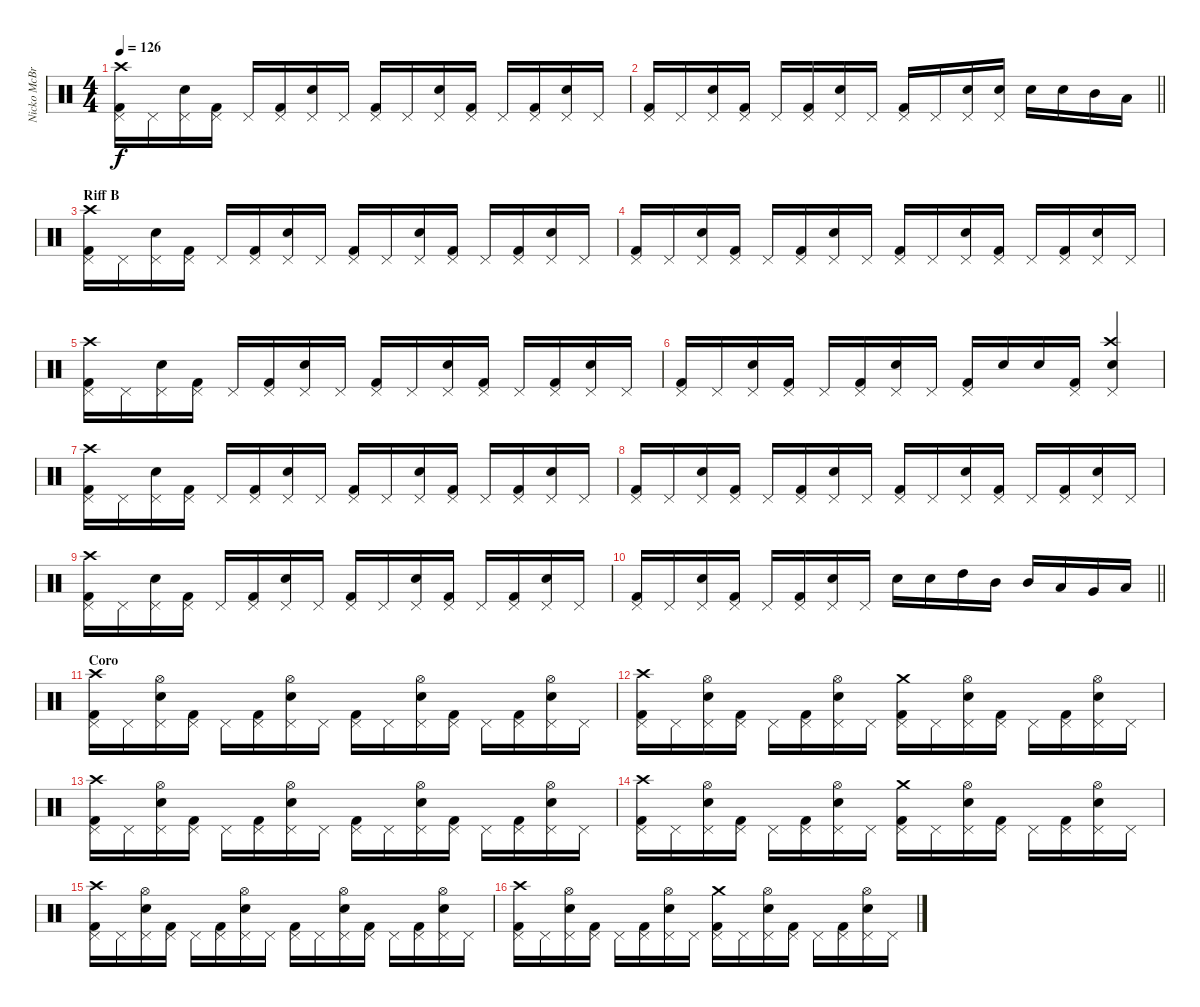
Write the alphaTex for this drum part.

\track ("Nicko McBrain" "Nicko McBr") {instrument percussion}
\staff {score}
\articulation defaults
\ts (4 4)
\tempo 126
\clef neutral
\ks c
("Kick (hit) 2" "Pedal Hi-Hat (hit)" "Crash high (hit)").16{dy f} "Pedal Hi-Hat (hit)".16 ("Snare (hit) 2" "Pedal Hi-Hat (hit)").16 ("Kick (hit) 2" "Pedal Hi-Hat (hit)").16 "Pedal Hi-Hat (hit)".16 ("Kick (hit) 2" "Pedal Hi-Hat (hit)").16 ("Snare (hit) 2" "Pedal Hi-Hat (hit)").16 "Pedal Hi-Hat (hit)".16 ("Kick (hit) 2" "Pedal Hi-Hat (hit)").16 "Pedal Hi-Hat (hit)".16 ("Snare (hit) 2" "Pedal Hi-Hat (hit)").16 ("Kick (hit) 2" "Pedal Hi-Hat (hit)").16 "Pedal Hi-Hat (hit)".16 ("Kick (hit) 2" "Pedal Hi-Hat (hit)").16 ("Snare (hit) 2" "Pedal Hi-Hat (hit)").16 "Pedal Hi-Hat (hit)".16 |
\barLineRight lightlight
("Kick (hit) 2" "Pedal Hi-Hat (hit)").16 "Pedal Hi-Hat (hit)".16 ("Snare (hit) 2" "Pedal Hi-Hat (hit)").16 ("Kick (hit) 2" "Pedal Hi-Hat (hit)").16 "Pedal Hi-Hat (hit)".16 ("Kick (hit) 2" "Pedal Hi-Hat (hit)").16 ("Snare (hit) 2" "Pedal Hi-Hat (hit)").16 "Pedal Hi-Hat (hit)".16 ("Kick (hit) 2" "Pedal Hi-Hat (hit)").16 "Pedal Hi-Hat (hit)".16 ("Snare (hit) 2" "Pedal Hi-Hat (hit)").16 ("Snare (hit) 2" "Pedal Hi-Hat (hit)").16 "Snare (hit) 2".16 "Snare (hit) 2".16 "Mid Tom (hit)".16 "Low Tom (hit)".16 |
\section ("" "Riff B")
("Kick (hit) 2" "Pedal Hi-Hat (hit)" "Crash high (hit)").16 "Pedal Hi-Hat (hit)".16 ("Snare (hit) 2" "Pedal Hi-Hat (hit)").16 ("Kick (hit) 2" "Pedal Hi-Hat (hit)").16 "Pedal Hi-Hat (hit)".16 ("Kick (hit) 2" "Pedal Hi-Hat (hit)").16 ("Snare (hit) 2" "Pedal Hi-Hat (hit)").16 "Pedal Hi-Hat (hit)".16 ("Kick (hit) 2" "Pedal Hi-Hat (hit)").16 "Pedal Hi-Hat (hit)".16 ("Snare (hit) 2" "Pedal Hi-Hat (hit)").16 ("Kick (hit) 2" "Pedal Hi-Hat (hit)").16 "Pedal Hi-Hat (hit)".16 ("Kick (hit) 2" "Pedal Hi-Hat (hit)").16 ("Snare (hit) 2" "Pedal Hi-Hat (hit)").16 "Pedal Hi-Hat (hit)".16 |
("Kick (hit) 2" "Pedal Hi-Hat (hit)").16 "Pedal Hi-Hat (hit)".16 ("Snare (hit) 2" "Pedal Hi-Hat (hit)").16 ("Kick (hit) 2" "Pedal Hi-Hat (hit)").16 "Pedal Hi-Hat (hit)".16 ("Kick (hit) 2" "Pedal Hi-Hat (hit)").16 ("Snare (hit) 2" "Pedal Hi-Hat (hit)").16 "Pedal Hi-Hat (hit)".16 ("Kick (hit) 2" "Pedal Hi-Hat (hit)").16 "Pedal Hi-Hat (hit)".16 ("Snare (hit) 2" "Pedal Hi-Hat (hit)").16 ("Kick (hit) 2" "Pedal Hi-Hat (hit)").16 "Pedal Hi-Hat (hit)".16 ("Kick (hit) 2" "Pedal Hi-Hat (hit)").16 ("Snare (hit) 2" "Pedal Hi-Hat (hit)").16 "Pedal Hi-Hat (hit)".16 |
("Kick (hit) 2" "Pedal Hi-Hat (hit)" "Crash high (hit)").16 "Pedal Hi-Hat (hit)".16 ("Snare (hit) 2" "Pedal Hi-Hat (hit)").16 ("Kick (hit) 2" "Pedal Hi-Hat (hit)").16 "Pedal Hi-Hat (hit)".16 ("Kick (hit) 2" "Pedal Hi-Hat (hit)").16 ("Snare (hit) 2" "Pedal Hi-Hat (hit)").16 "Pedal Hi-Hat (hit)".16 ("Kick (hit) 2" "Pedal Hi-Hat (hit)").16 "Pedal Hi-Hat (hit)".16 ("Snare (hit) 2" "Pedal Hi-Hat (hit)").16 ("Kick (hit) 2" "Pedal Hi-Hat (hit)").16 "Pedal Hi-Hat (hit)".16 ("Kick (hit) 2" "Pedal Hi-Hat (hit)").16 ("Snare (hit) 2" "Pedal Hi-Hat (hit)").16 "Pedal Hi-Hat (hit)".16 |
("Kick (hit) 2" "Pedal Hi-Hat (hit)").16 "Pedal Hi-Hat (hit)".16 ("Snare (hit) 2" "Pedal Hi-Hat (hit)").16 ("Kick (hit) 2" "Pedal Hi-Hat (hit)").16 "Pedal Hi-Hat (hit)".16 ("Kick (hit) 2" "Pedal Hi-Hat (hit)").16 ("Snare (hit) 2" "Pedal Hi-Hat (hit)").16 "Pedal Hi-Hat (hit)".16 ("Kick (hit) 2" "Pedal Hi-Hat (hit)").16 "Snare (hit) 2".16 "Snare (hit) 2".16 ("Kick (hit) 2" "Pedal Hi-Hat (hit)").16 ("Snare (hit) 2" "Pedal Hi-Hat (hit)" "Crash high (hit)").4 |
("Kick (hit) 2" "Pedal Hi-Hat (hit)" "Crash high (hit)").16 "Pedal Hi-Hat (hit)".16 ("Snare (hit) 2" "Pedal Hi-Hat (hit)").16 ("Kick (hit) 2" "Pedal Hi-Hat (hit)").16 "Pedal Hi-Hat (hit)".16 ("Kick (hit) 2" "Pedal Hi-Hat (hit)").16 ("Snare (hit) 2" "Pedal Hi-Hat (hit)").16 "Pedal Hi-Hat (hit)".16 ("Kick (hit) 2" "Pedal Hi-Hat (hit)").16 "Pedal Hi-Hat (hit)".16 ("Snare (hit) 2" "Pedal Hi-Hat (hit)").16 ("Kick (hit) 2" "Pedal Hi-Hat (hit)").16 "Pedal Hi-Hat (hit)".16 ("Kick (hit) 2" "Pedal Hi-Hat (hit)").16 ("Snare (hit) 2" "Pedal Hi-Hat (hit)").16 "Pedal Hi-Hat (hit)".16 |
("Kick (hit) 2" "Pedal Hi-Hat (hit)").16 "Pedal Hi-Hat (hit)".16 ("Snare (hit) 2" "Pedal Hi-Hat (hit)").16 ("Kick (hit) 2" "Pedal Hi-Hat (hit)").16 "Pedal Hi-Hat (hit)".16 ("Kick (hit) 2" "Pedal Hi-Hat (hit)").16 ("Snare (hit) 2" "Pedal Hi-Hat (hit)").16 "Pedal Hi-Hat (hit)".16 ("Kick (hit) 2" "Pedal Hi-Hat (hit)").16 "Pedal Hi-Hat (hit)".16 ("Snare (hit) 2" "Pedal Hi-Hat (hit)").16 ("Kick (hit) 2" "Pedal Hi-Hat (hit)").16 "Pedal Hi-Hat (hit)".16 ("Kick (hit) 2" "Pedal Hi-Hat (hit)").16 ("Snare (hit) 2" "Pedal Hi-Hat (hit)").16 "Pedal Hi-Hat (hit)".16 |
("Kick (hit) 2" "Pedal Hi-Hat (hit)" "Crash high (hit)").16 "Pedal Hi-Hat (hit)".16 ("Snare (hit) 2" "Pedal Hi-Hat (hit)").16 ("Kick (hit) 2" "Pedal Hi-Hat (hit)").16 "Pedal Hi-Hat (hit)".16 ("Kick (hit) 2" "Pedal Hi-Hat (hit)").16 ("Snare (hit) 2" "Pedal Hi-Hat (hit)").16 "Pedal Hi-Hat (hit)".16 ("Kick (hit) 2" "Pedal Hi-Hat (hit)").16 "Pedal Hi-Hat (hit)".16 ("Snare (hit) 2" "Pedal Hi-Hat (hit)").16 ("Kick (hit) 2" "Pedal Hi-Hat (hit)").16 "Pedal Hi-Hat (hit)".16 ("Kick (hit) 2" "Pedal Hi-Hat (hit)").16 ("Snare (hit) 2" "Pedal Hi-Hat (hit)").16 "Pedal Hi-Hat (hit)".16 |
\barLineRight lightlight
("Kick (hit) 2" "Pedal Hi-Hat (hit)").16 "Pedal Hi-Hat (hit)".16 ("Snare (hit) 2" "Pedal Hi-Hat (hit)").16 ("Kick (hit) 2" "Pedal Hi-Hat (hit)").16 "Pedal Hi-Hat (hit)".16 ("Kick (hit) 2" "Pedal Hi-Hat (hit)").16 ("Snare (hit) 2" "Pedal Hi-Hat (hit)").16 "Pedal Hi-Hat (hit)".16 "Snare (hit) 2".16 "Snare (hit) 2".16 "High Tom (hit)".16 "Mid Tom (hit)".16 "Mid Tom (hit)".16 "Low Tom (hit)".16 "Very Low Tom (hit)".16 "Low Floor Tom (hit)".16 |
\section ("" "Coro")
("Kick (hit) 2" "Pedal Hi-Hat (hit)" "Crash high (hit)").16 "Pedal Hi-Hat (hit)".16 ("Snare (hit) 2" "Pedal Hi-Hat (hit)" "Hi-Hat (open)").16 ("Kick (hit) 2" "Pedal Hi-Hat (hit)").16 "Pedal Hi-Hat (hit)".16 ("Kick (hit) 2" "Pedal Hi-Hat (hit)").16 ("Snare (hit) 2" "Pedal Hi-Hat (hit)" "Hi-Hat (open)").16 "Pedal Hi-Hat (hit)".16 ("Kick (hit) 2" "Pedal Hi-Hat (hit)").16 "Pedal Hi-Hat (hit)".16 ("Snare (hit) 2" "Pedal Hi-Hat (hit)" "Hi-Hat (open)").16 ("Kick (hit) 2" "Pedal Hi-Hat (hit)").16 "Pedal Hi-Hat (hit)".16 ("Kick (hit) 2" "Pedal Hi-Hat (hit)").16 ("Snare (hit) 2" "Pedal Hi-Hat (hit)" "Hi-Hat (open)").16 "Pedal Hi-Hat (hit)".16 |
("Kick (hit) 2" "Pedal Hi-Hat (hit)" "Crash high (hit)").16 "Pedal Hi-Hat (hit)".16 ("Snare (hit) 2" "Pedal Hi-Hat (hit)" "Hi-Hat (open)").16 ("Kick (hit) 2" "Pedal Hi-Hat (hit)").16 "Pedal Hi-Hat (hit)".16 ("Kick (hit) 2" "Pedal Hi-Hat (hit)").16 ("Snare (hit) 2" "Pedal Hi-Hat (hit)" "Hi-Hat (open)").16 "Pedal Hi-Hat (hit)".16 ("Kick (hit) 2" "Pedal Hi-Hat (hit)" "Crash medium (hit)").16 "Pedal Hi-Hat (hit)".16 ("Snare (hit) 2" "Pedal Hi-Hat (hit)" "Hi-Hat (open)").16 ("Kick (hit) 2" "Pedal Hi-Hat (hit)").16 "Pedal Hi-Hat (hit)".16 ("Kick (hit) 2" "Pedal Hi-Hat (hit)").16 ("Snare (hit) 2" "Pedal Hi-Hat (hit)" "Hi-Hat (open)").16 "Pedal Hi-Hat (hit)".16 |
("Kick (hit) 2" "Pedal Hi-Hat (hit)" "Crash high (hit)").16 "Pedal Hi-Hat (hit)".16 ("Snare (hit) 2" "Pedal Hi-Hat (hit)" "Hi-Hat (open)").16 ("Kick (hit) 2" "Pedal Hi-Hat (hit)").16 "Pedal Hi-Hat (hit)".16 ("Kick (hit) 2" "Pedal Hi-Hat (hit)").16 ("Snare (hit) 2" "Pedal Hi-Hat (hit)" "Hi-Hat (open)").16 "Pedal Hi-Hat (hit)".16 ("Kick (hit) 2" "Pedal Hi-Hat (hit)").16 "Pedal Hi-Hat (hit)".16 ("Snare (hit) 2" "Pedal Hi-Hat (hit)" "Hi-Hat (open)").16 ("Kick (hit) 2" "Pedal Hi-Hat (hit)").16 "Pedal Hi-Hat (hit)".16 ("Kick (hit) 2" "Pedal Hi-Hat (hit)").16 ("Snare (hit) 2" "Pedal Hi-Hat (hit)" "Hi-Hat (open)").16 "Pedal Hi-Hat (hit)".16 |
("Kick (hit) 2" "Pedal Hi-Hat (hit)" "Crash high (hit)").16 "Pedal Hi-Hat (hit)".16 ("Snare (hit) 2" "Pedal Hi-Hat (hit)" "Hi-Hat (open)").16 ("Kick (hit) 2" "Pedal Hi-Hat (hit)").16 "Pedal Hi-Hat (hit)".16 ("Kick (hit) 2" "Pedal Hi-Hat (hit)").16 ("Snare (hit) 2" "Pedal Hi-Hat (hit)" "Hi-Hat (open)").16 "Pedal Hi-Hat (hit)".16 ("Kick (hit) 2" "Pedal Hi-Hat (hit)" "Crash medium (hit)").16 "Pedal Hi-Hat (hit)".16 ("Snare (hit) 2" "Pedal Hi-Hat (hit)" "Hi-Hat (open)").16 ("Kick (hit) 2" "Pedal Hi-Hat (hit)").16 "Pedal Hi-Hat (hit)".16 ("Kick (hit) 2" "Pedal Hi-Hat (hit)").16 ("Snare (hit) 2" "Pedal Hi-Hat (hit)" "Hi-Hat (open)").16 "Pedal Hi-Hat (hit)".16 |
("Kick (hit) 2" "Pedal Hi-Hat (hit)" "Crash high (hit)").16 "Pedal Hi-Hat (hit)".16 ("Snare (hit) 2" "Pedal Hi-Hat (hit)" "Hi-Hat (open)").16 ("Kick (hit) 2" "Pedal Hi-Hat (hit)").16 "Pedal Hi-Hat (hit)".16 ("Kick (hit) 2" "Pedal Hi-Hat (hit)").16 ("Snare (hit) 2" "Pedal Hi-Hat (hit)" "Hi-Hat (open)").16 "Pedal Hi-Hat (hit)".16 ("Kick (hit) 2" "Pedal Hi-Hat (hit)").16 "Pedal Hi-Hat (hit)".16 ("Snare (hit) 2" "Pedal Hi-Hat (hit)" "Hi-Hat (open)").16 ("Kick (hit) 2" "Pedal Hi-Hat (hit)").16 "Pedal Hi-Hat (hit)".16 ("Kick (hit) 2" "Pedal Hi-Hat (hit)").16 ("Snare (hit) 2" "Pedal Hi-Hat (hit)" "Hi-Hat (open)").16 "Pedal Hi-Hat (hit)".16 |
("Kick (hit) 2" "Pedal Hi-Hat (hit)" "Crash high (hit)").16 "Pedal Hi-Hat (hit)".16 ("Snare (hit) 2" "Pedal Hi-Hat (hit)" "Hi-Hat (open)").16 ("Kick (hit) 2" "Pedal Hi-Hat (hit)").16 "Pedal Hi-Hat (hit)".16 ("Kick (hit) 2" "Pedal Hi-Hat (hit)").16 ("Snare (hit) 2" "Pedal Hi-Hat (hit)" "Hi-Hat (open)").16 "Pedal Hi-Hat (hit)".16 ("Kick (hit) 2" "Pedal Hi-Hat (hit)" "Crash medium (hit)").16 "Pedal Hi-Hat (hit)".16 ("Snare (hit) 2" "Pedal Hi-Hat (hit)" "Hi-Hat (open)").16 ("Kick (hit) 2" "Pedal Hi-Hat (hit)").16 "Pedal Hi-Hat (hit)".16 ("Kick (hit) 2" "Pedal Hi-Hat (hit)").16 ("Snare (hit) 2" "Pedal Hi-Hat (hit)" "Hi-Hat (open)").16 "Pedal Hi-Hat (hit)".16
